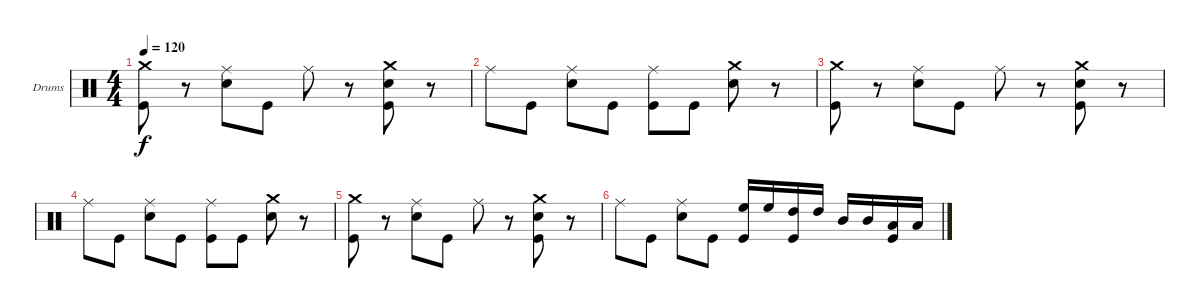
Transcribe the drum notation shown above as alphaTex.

\defaultSystemsLayout 4
\bracketExtendMode groupsimilarinstruments
\firstSystemTrackNameOrientation horizontal
\otherSystemsTrackNameOrientation horizontal
\track ("Drumkit" "Drums") {instrument percussion}
\staff {score}
\articulation defaults
\ts (4 4)
\tempo 120
\clef neutral
\scale
0.333333
\ks c
("Crash medium (hit)" "Kick (hit)").8{dy f} r.8 ("Ride (middle)" "Snare (hit) 2").8 "Kick (hit)".8 "Ride (middle)".8 r.8 ("Crash medium (hit)" "Snare (hit) 2" "Kick (hit)").8 r.8 |
\scale
0.333333 "Ride (middle)".8 "Kick (hit)".8 ("Ride (middle)" "Snare (hit) 2").8 "Kick (hit)".8 ("Ride (middle)" "Kick (hit)").8 "Kick (hit)".8 ("Crash medium (hit)" "Snare (hit) 2").8 r.8 |
\scale
0.333333 ("Crash medium (hit)" "Kick (hit)").8 r.8 ("Ride (middle)" "Snare (hit) 2").8 "Kick (hit)".8 "Ride (middle)".8 r.8 ("Crash medium (hit)" "Snare (hit) 2" "Kick (hit)").8 r.8 |
\scale
0.333333 "Ride (middle)".8 "Kick (hit)".8 ("Ride (middle)" "Snare (hit) 2").8 "Kick (hit)".8 ("Ride (middle)" "Kick (hit)").8 "Kick (hit)".8 ("Crash medium (hit)" "Snare (hit) 2").8 r.8 |
\scale
0.333333 ("Crash medium (hit)" "Kick (hit)").8 r.8 ("Ride (middle)" "Snare (hit) 2").8 "Kick (hit)".8 "Ride (middle)".8 r.8 ("Crash medium (hit)" "Snare (hit) 2" "Kick (hit)").8 r.8 |
\scale
0.333333 "Ride (middle)".8 "Kick (hit)".8 ("Ride (middle)" "Snare (hit) 2").8 "Kick (hit)".8 ("High Floor Tom (hit)" "Kick (hit)").16 "High Floor Tom (hit)".16 ("High Tom (hit)" "Kick (hit)").16 "High Tom (hit)".16 "Mid Tom (hit)".16 "Mid Tom (hit)".16 ("Low Tom (hit)" "Kick (hit)").16 "Low Tom (hit)".16 |
\scale
0.333333
